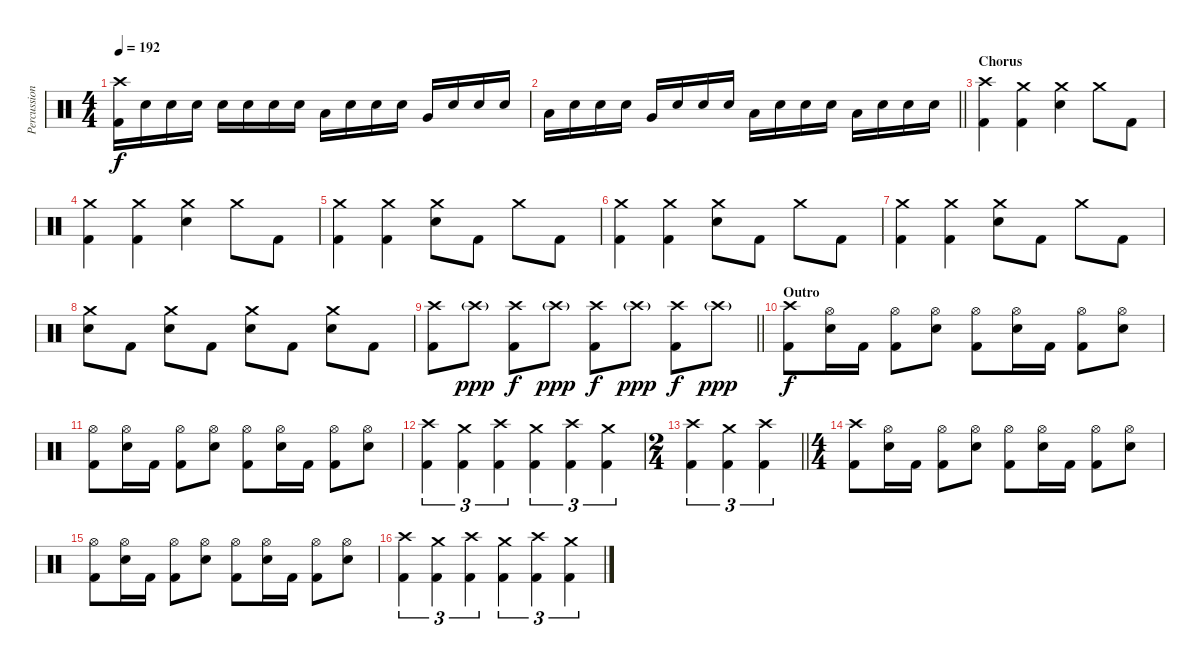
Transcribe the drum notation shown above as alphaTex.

\track ("Percussion" "Percussion") {instrument percussion}
\staff {score}
\articulation defaults
\ts (4 4)
\tempo 192
\clef neutral
\ks c
("Crash high (hit)" "Kick (hit) 2").16{dy f} "Electric Snare (hit)".16 "Electric Snare (hit)".16 "Electric Snare (hit)".16 "Electric Snare (hit)".16 "Electric Snare (hit)".16 "Electric Snare (hit)".16 "Electric Snare (hit)".16 "Low Tom (hit)".16 "Electric Snare (hit)".16 "Electric Snare (hit)".16 "Electric Snare (hit)".16 "Very Low Tom (hit)".16 "Electric Snare (hit)".16 "Electric Snare (hit)".16 "Electric Snare (hit)".16 |
\barLineRight lightlight "Low Tom (hit)".16 "Electric Snare (hit)".16 "Electric Snare (hit)".16 "Electric Snare (hit)".16 "Very Low Tom (hit)".16 "Electric Snare (hit)".16 "Electric Snare (hit)".16 "Electric Snare (hit)".16 "Low Tom (hit)".16 "Electric Snare (hit)".16 "Electric Snare (hit)".16 "Electric Snare (hit)".16 "Low Tom (hit)".16 "Electric Snare (hit)".16 "Electric Snare (hit)".16 "Electric Snare (hit)".16
|
\section ("" "Chorus")
("Crash high (hit)" "Kick (hit) 2").4 ("Crash medium (hit)" "Kick (hit) 2").4 ("Crash medium (hit)" "Electric Snare (hit)").4 "Crash medium (hit)".8 "Kick (hit) 2".8 |
("Crash medium (hit)" "Kick (hit) 2").4 ("Crash medium (hit)" "Kick (hit) 2").4 ("Crash medium (hit)" "Electric Snare (hit)").4 "Crash medium (hit)".8 "Kick (hit) 2".8 |
("Crash medium (hit)" "Kick (hit) 2").4 ("Crash medium (hit)" "Kick (hit) 2").4 ("Crash medium (hit)" "Electric Snare (hit)").8 "Kick (hit) 2".8 "Crash medium (hit)".8 "Kick (hit) 2".8 |
("Crash medium (hit)" "Kick (hit) 2").4 ("Crash medium (hit)" "Kick (hit) 2").4 ("Crash medium (hit)" "Electric Snare (hit)").8 "Kick (hit) 2".8 "Crash medium (hit)".8 "Kick (hit) 2".8 |
("Crash medium (hit)" "Kick (hit) 2").4 ("Crash medium (hit)" "Kick (hit) 2").4 ("Crash medium (hit)" "Electric Snare (hit)").8 "Kick (hit) 2".8 "Crash medium (hit)".8 "Kick (hit) 2".8 |
("Crash medium (hit)" "Electric Snare (hit)").8 "Kick (hit) 2".8 ("Crash medium (hit)" "Electric Snare (hit)").8 "Kick (hit) 2".8 ("Crash medium (hit)" "Electric Snare (hit)").8 "Kick (hit) 2".8 ("Crash medium (hit)" "Electric Snare (hit)").8 "Kick (hit) 2".8 |
\barLineRight lightlight
("Crash high (hit)" "Kick (hit) 2").8 "Crash high (hit)"{g}.8{dy ppp} ("Crash high (hit)" "Kick (hit) 2").8{dy f} "Crash high (hit)"{g}.8{dy ppp} ("Crash high (hit)" "Kick (hit) 2").8{dy f} "Crash high (hit)"{g}.8{dy ppp} ("Crash high (hit)" "Kick (hit) 2").8{dy f} "Crash high (hit)"{g}.8{dy ppp} |
\section ("" "Outro")
("Crash high (hit)" "Kick (hit) 2").8{dy f} ("Hi-Hat (open)" "Electric Snare (hit)").16 "Kick (hit) 2".16 ("Hi-Hat (open)" "Kick (hit) 2").8 ("Hi-Hat (open)" "Electric Snare (hit)").8 ("Hi-Hat (open)" "Kick (hit) 2").8 ("Hi-Hat (open)" "Electric Snare (hit)").16 "Kick (hit) 2".16 ("Hi-Hat (open)" "Kick (hit) 2").8 ("Hi-Hat (open)" "Electric Snare (hit)").8 |
("Hi-Hat (open)" "Kick (hit) 2").8 ("Hi-Hat (open)" "Electric Snare (hit)").16 "Kick (hit) 2".16 ("Hi-Hat (open)" "Kick (hit) 2").8 ("Hi-Hat (open)" "Electric Snare (hit)").8 ("Hi-Hat (open)" "Kick (hit) 2").8 ("Hi-Hat (open)" "Electric Snare (hit)").16 "Kick (hit) 2".16 ("Hi-Hat (open)" "Kick (hit) 2").8 ("Hi-Hat (open)" "Electric Snare (hit)").8 |
("Crash high (hit)" "Kick (hit) 2").4{tu (3 2)} ("Crash medium (hit)" "Kick (hit) 2").4{tu (3 2)} ("Crash high (hit)" "Kick (hit) 2").4{tu (3 2)} ("Crash medium (hit)" "Kick (hit) 2").4{tu (3 2)} ("Crash high (hit)" "Kick (hit) 2").4{tu (3 2)} ("Crash medium (hit)" "Kick (hit) 2").4{tu (3 2)} |
\ts (2 4)
\barLineRight lightlight
("Crash high (hit)" "Kick (hit) 2").4{tu (3 2)} ("Crash medium (hit)" "Kick (hit) 2").4{tu (3 2)} ("Crash high (hit)" "Kick (hit) 2").4{tu (3 2)} |
\ts (4 4)
("Crash high (hit)" "Kick (hit) 2").8 ("Hi-Hat (open)" "Electric Snare (hit)").16 "Kick (hit) 2".16 ("Hi-Hat (open)" "Kick (hit) 2").8 ("Hi-Hat (open)" "Electric Snare (hit)").8 ("Hi-Hat (open)" "Kick (hit) 2").8 ("Hi-Hat (open)" "Electric Snare (hit)").16 "Kick (hit) 2".16 ("Hi-Hat (open)" "Kick (hit) 2").8 ("Hi-Hat (open)" "Electric Snare (hit)").8 |
("Hi-Hat (open)" "Kick (hit) 2").8 ("Hi-Hat (open)" "Electric Snare (hit)").16 "Kick (hit) 2".16 ("Hi-Hat (open)" "Kick (hit) 2").8 ("Hi-Hat (open)" "Electric Snare (hit)").8 ("Hi-Hat (open)" "Kick (hit) 2").8 ("Hi-Hat (open)" "Electric Snare (hit)").16 "Kick (hit) 2".16 ("Hi-Hat (open)" "Kick (hit) 2").8 ("Hi-Hat (open)" "Electric Snare (hit)").8 |
("Crash high (hit)" "Kick (hit) 2").4{tu (3 2)} ("Crash medium (hit)" "Kick (hit) 2").4{tu (3 2)} ("Crash high (hit)" "Kick (hit) 2").4{tu (3 2)} ("Crash medium (hit)" "Kick (hit) 2").4{tu (3 2)} ("Crash high (hit)" "Kick (hit) 2").4{tu (3 2)} ("Crash medium (hit)" "Kick (hit) 2").4{tu (3 2)}
